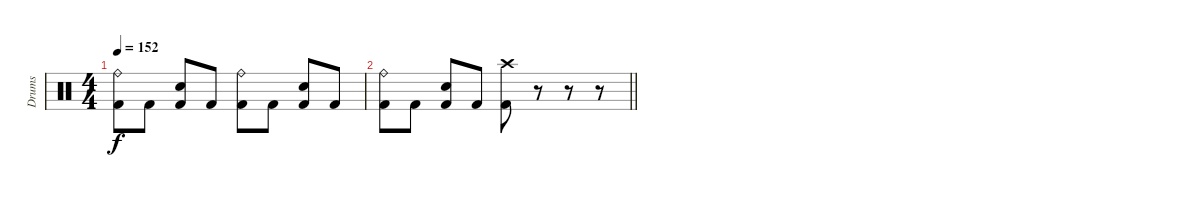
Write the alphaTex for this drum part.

\track ("Drums" "Drums") {instrument percussion}
\staff {score}
\articulation defaults
\ts (4 4)
\tempo 152
\clef neutral
\ks c
("Ride (bell)" "Kick (hit) 2").8{dy f} "Kick (hit) 2".8 ("Snare (hit) 2" "Kick (hit) 2").8 "Kick (hit) 2".8 ("Ride (bell)" "Kick (hit) 2").8 "Kick (hit) 2".8 ("Snare (hit) 2" "Kick (hit) 2").8 "Kick (hit) 2".8 |
\barLineRight lightlight
("Ride (bell)" "Kick (hit) 2").8 "Kick (hit) 2".8 ("Snare (hit) 2" "Kick (hit) 2").8 "Kick (hit) 2".8 ("Crash high (hit)" "Kick (hit) 2").8 r.8 r.8 r.8
